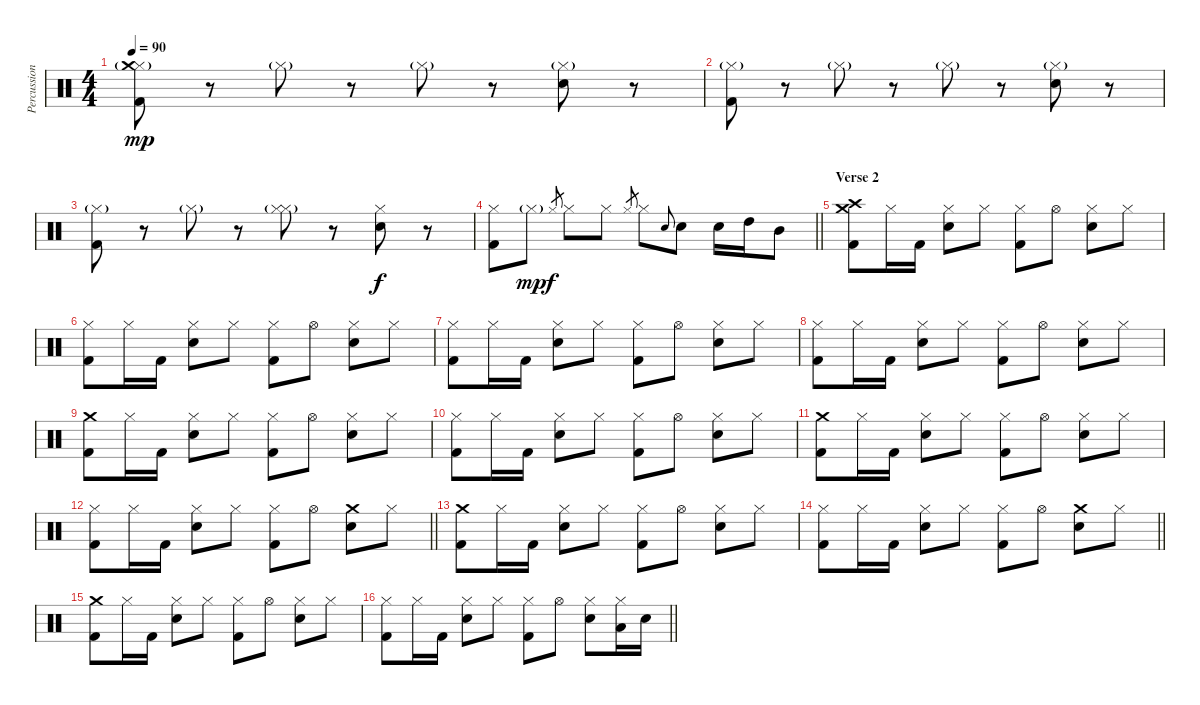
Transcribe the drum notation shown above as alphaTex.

\track ("Percussion" "Percussion") {instrument percussion}
\staff {score}
\articulation defaults
\ts (4 4)
\tempo 90
\clef neutral
\ks c
("Hi-Hat (closed)"{g} "Crash medium (hit)" "Kick (hit) 2").8{dy mp} r.8 "Hi-Hat (closed)"{g}.8 r.8 "Hi-Hat (closed)"{g}.8 r.8 ("Hi-Hat (closed)"{g} "Electric Snare (hit)").8 r.8 |
("Hi-Hat (closed)"{g} "Kick (hit) 2").8 r.8 "Hi-Hat (closed)"{g}.8 r.8 "Hi-Hat (closed)"{g}.8 r.8 ("Hi-Hat (closed)"{g} "Electric Snare (hit)").8 r.8 |
("Hi-Hat (closed)"{g} "Kick (hit) 2").8 r.8 "Hi-Hat (closed)"{g}.8 r.8 ("Hi-Hat (closed)"{g} "Hi-Hat (closed)"{g}).8 r.8 ("Hi-Hat (closed)" "Electric Snare (hit)").8{dy f} r.8 |
\barLineRight lightlight
("Hi-Hat (closed)" "Kick (hit) 2").8 "Hi-Hat (closed)"{g}.8{dy mp} "Hi-Hat (closed)".8{gr dy f} "Hi-Hat (closed)".8 "Hi-Hat (closed)".8 "Hi-Hat (closed)".8{gr} "Hi-Hat (closed)".8 "Electric Snare (hit)".8{gr onbeat} "Electric Snare (hit)".8 "Electric Snare (hit)".16 "High Tom (hit)".16 "Mid Tom (hit)".8 |
\section ("" "Verse 2")
("Crash medium (hit)" "Crash high (hit)" "Kick (hit) 2").8 "Hi-Hat (closed)".16 "Kick (hit) 2".16 ("Hi-Hat (closed)" "Electric Snare (hit)").8 "Hi-Hat (closed)".8 ("Hi-Hat (closed)" "Kick (hit) 2").8 "Hi-Hat (open)".8 ("Hi-Hat (closed)" "Electric Snare (hit)").8 "Hi-Hat (closed)".8 |
("Hi-Hat (closed)" "Kick (hit) 2").8 "Hi-Hat (closed)".16 "Kick (hit) 2".16 ("Hi-Hat (closed)" "Electric Snare (hit)").8 "Hi-Hat (closed)".8 ("Hi-Hat (closed)" "Kick (hit) 2").8 "Hi-Hat (open)".8 ("Hi-Hat (closed)" "Electric Snare (hit)").8 "Hi-Hat (closed)".8 |
("Hi-Hat (closed)" "Kick (hit) 2").8 "Hi-Hat (closed)".16 "Kick (hit) 2".16 ("Hi-Hat (closed)" "Electric Snare (hit)").8 "Hi-Hat (closed)".8 ("Hi-Hat (closed)" "Kick (hit) 2").8 "Hi-Hat (open)".8 ("Hi-Hat (closed)" "Electric Snare (hit)").8 "Hi-Hat (closed)".8 |
("Hi-Hat (closed)" "Kick (hit) 2").8 "Hi-Hat (closed)".16 "Kick (hit) 2".16 ("Hi-Hat (closed)" "Electric Snare (hit)").8 "Hi-Hat (closed)".8 ("Hi-Hat (closed)" "Kick (hit) 2").8 "Hi-Hat (open)".8 ("Hi-Hat (closed)" "Electric Snare (hit)").8 "Hi-Hat (closed)".8 |
("Crash medium (hit)" "Kick (hit) 2").8 "Hi-Hat (closed)".16 "Kick (hit) 2".16 ("Hi-Hat (closed)" "Electric Snare (hit)").8 "Hi-Hat (closed)".8 ("Hi-Hat (closed)" "Kick (hit) 2").8 "Hi-Hat (open)".8 ("Hi-Hat (closed)" "Electric Snare (hit)").8 "Hi-Hat (closed)".8 |
("Hi-Hat (closed)" "Kick (hit) 2").8 "Hi-Hat (closed)".16 "Kick (hit) 2".16 ("Hi-Hat (closed)" "Electric Snare (hit)").8 "Hi-Hat (closed)".8 ("Hi-Hat (closed)" "Kick (hit) 2").8 "Hi-Hat (open)".8 ("Hi-Hat (closed)" "Electric Snare (hit)").8 "Hi-Hat (closed)".8 |
("Crash medium (hit)" "Kick (hit) 2").8 "Hi-Hat (closed)".16 "Kick (hit) 2".16 ("Hi-Hat (closed)" "Electric Snare (hit)").8 "Hi-Hat (closed)".8 ("Hi-Hat (closed)" "Kick (hit) 2").8 "Hi-Hat (open)".8 ("Hi-Hat (closed)" "Electric Snare (hit)").8 "Hi-Hat (closed)".8 |
\barLineRight lightlight
("Hi-Hat (closed)" "Kick (hit) 2").8 "Hi-Hat (closed)".16 "Kick (hit) 2".16 ("Hi-Hat (closed)" "Electric Snare (hit)").8 "Hi-Hat (closed)".8 ("Hi-Hat (closed)" "Kick (hit) 2").8 "Hi-Hat (open)".8 ("Crash medium (hit)" "Electric Snare (hit)").8 "Hi-Hat (closed)".8 |
("Crash medium (hit)" "Kick (hit) 2").8 "Hi-Hat (closed)".16 "Kick (hit) 2".16 ("Hi-Hat (closed)" "Electric Snare (hit)").8 "Hi-Hat (closed)".8 ("Hi-Hat (closed)" "Kick (hit) 2").8 "Hi-Hat (open)".8 ("Hi-Hat (closed)" "Electric Snare (hit)").8 "Hi-Hat (closed)".8 |
\barLineRight lightlight
("Hi-Hat (closed)" "Kick (hit) 2").8 "Hi-Hat (closed)".16 "Kick (hit) 2".16 ("Hi-Hat (closed)" "Electric Snare (hit)").8 "Hi-Hat (closed)".8 ("Hi-Hat (closed)" "Kick (hit) 2").8 "Hi-Hat (open)".8 ("Crash medium (hit)" "Electric Snare (hit)").8 "Hi-Hat (closed)".8 |
("Crash medium (hit)" "Kick (hit) 2").8 "Hi-Hat (closed)".16 "Kick (hit) 2".16 ("Hi-Hat (closed)" "Electric Snare (hit)").8 "Hi-Hat (closed)".8 ("Hi-Hat (closed)" "Kick (hit) 2").8 "Hi-Hat (open)".8 ("Hi-Hat (closed)" "Electric Snare (hit)").8 "Hi-Hat (closed)".8 |
\barLineRight lightlight
("Hi-Hat (closed)" "Kick (hit) 2").8 "Hi-Hat (closed)".16 "Kick (hit) 2".16 ("Hi-Hat (closed)" "Electric Snare (hit)").8 "Hi-Hat (closed)".8 ("Hi-Hat (closed)" "Kick (hit) 2").8 "Hi-Hat (open)".8 ("Hi-Hat (closed)" "Electric Snare (hit)").8 ("Hi-Hat (closed)" "Low Tom (hit)").16 "Electric Snare (hit)".16
